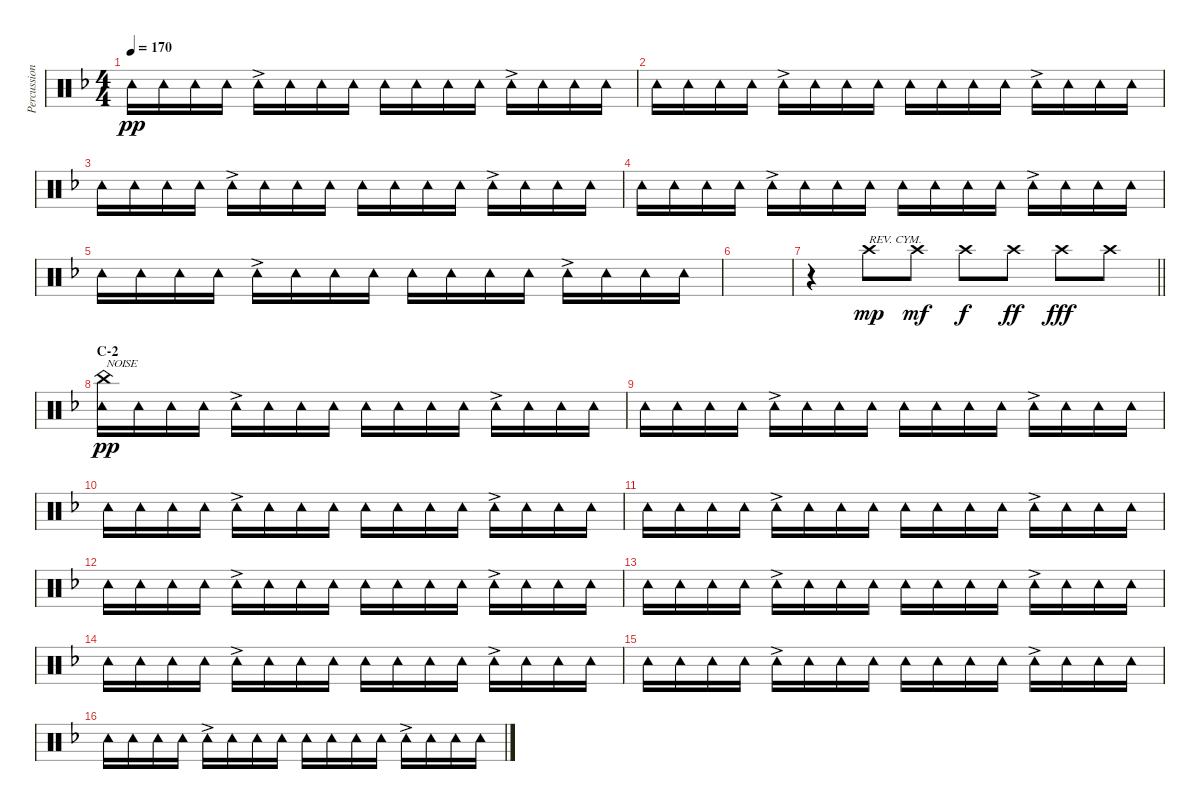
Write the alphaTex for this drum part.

\track ("Percussion (Tainaka Ritsu)" "Percussion") {instrument percussion}
\staff {score}
\articulation defaults
\ts (4 4)
\tempo 170
\clef neutral
\ks f "Tambourine (hit)".16{dy pp} "Tambourine (hit)".16 "Tambourine (hit)".16 "Tambourine (hit)".16 "Tambourine (hit)"{ac}.16 "Tambourine (hit)".16 "Tambourine (hit)".16 "Tambourine (hit)".16 "Tambourine (hit)".16 "Tambourine (hit)".16 "Tambourine (hit)".16 "Tambourine (hit)".16 "Tambourine (hit)"{ac}.16 "Tambourine (hit)".16 "Tambourine (hit)".16 "Tambourine (hit)".16
|
"Tambourine (hit)".16 "Tambourine (hit)".16 "Tambourine (hit)".16 "Tambourine (hit)".16 "Tambourine (hit)"{ac}.16 "Tambourine (hit)".16 "Tambourine (hit)".16 "Tambourine (hit)".16 "Tambourine (hit)".16 "Tambourine (hit)".16 "Tambourine (hit)".16 "Tambourine (hit)".16 "Tambourine (hit)"{ac}.16 "Tambourine (hit)".16 "Tambourine (hit)".16 "Tambourine (hit)".16 |
"Tambourine (hit)".16 "Tambourine (hit)".16 "Tambourine (hit)".16 "Tambourine (hit)".16 "Tambourine (hit)"{ac}.16 "Tambourine (hit)".16 "Tambourine (hit)".16 "Tambourine (hit)".16 "Tambourine (hit)".16 "Tambourine (hit)".16 "Tambourine (hit)".16 "Tambourine (hit)".16 "Tambourine (hit)"{ac}.16 "Tambourine (hit)".16 "Tambourine (hit)".16 "Tambourine (hit)".16 |
"Tambourine (hit)".16 "Tambourine (hit)".16 "Tambourine (hit)".16 "Tambourine (hit)".16 "Tambourine (hit)"{ac}.16 "Tambourine (hit)".16 "Tambourine (hit)".16 "Tambourine (hit)".16 "Tambourine (hit)".16 "Tambourine (hit)".16 "Tambourine (hit)".16 "Tambourine (hit)".16 "Tambourine (hit)"{ac}.16 "Tambourine (hit)".16 "Tambourine (hit)".16 "Tambourine (hit)".16 |
"Tambourine (hit)".16 "Tambourine (hit)".16 "Tambourine (hit)".16 "Tambourine (hit)".16 "Tambourine (hit)"{ac}.16 "Tambourine (hit)".16 "Tambourine (hit)".16 "Tambourine (hit)".16 "Tambourine (hit)".16 "Tambourine (hit)".16 "Tambourine (hit)".16 "Tambourine (hit)".16 "Tambourine (hit)"{ac}.16 "Tambourine (hit)".16 "Tambourine (hit)".16 "Tambourine (hit)".16 |
|
\barLineRight lightlight
r.4{volume 0} "Crash high (hit)".8{txt "REV. CYM." dy mp volume 13} "Crash high (hit)".8{dy mf} "Crash high (hit)".8{dy f} "Crash high (hit)".8{dy ff} "Crash high (hit)".8{dy fff} "Crash high (hit)".8 |
\section ("" "C-2")
("China (hit)" "Tambourine (hit)").16{txt "NOISE" dy pp} "Tambourine (hit)".16 "Tambourine (hit)".16 "Tambourine (hit)".16 "Tambourine (hit)"{ac}.16 "Tambourine (hit)".16 "Tambourine (hit)".16 "Tambourine (hit)".16 "Tambourine (hit)".16 "Tambourine (hit)".16 "Tambourine (hit)".16 "Tambourine (hit)".16 "Tambourine (hit)"{ac}.16 "Tambourine (hit)".16 "Tambourine (hit)".16 "Tambourine (hit)".16 |
"Tambourine (hit)".16 "Tambourine (hit)".16 "Tambourine (hit)".16 "Tambourine (hit)".16 "Tambourine (hit)"{ac}.16 "Tambourine (hit)".16 "Tambourine (hit)".16 "Tambourine (hit)".16 "Tambourine (hit)".16 "Tambourine (hit)".16 "Tambourine (hit)".16 "Tambourine (hit)".16 "Tambourine (hit)"{ac}.16 "Tambourine (hit)".16 "Tambourine (hit)".16 "Tambourine (hit)".16 |
"Tambourine (hit)".16 "Tambourine (hit)".16 "Tambourine (hit)".16 "Tambourine (hit)".16 "Tambourine (hit)"{ac}.16 "Tambourine (hit)".16 "Tambourine (hit)".16 "Tambourine (hit)".16 "Tambourine (hit)".16 "Tambourine (hit)".16 "Tambourine (hit)".16 "Tambourine (hit)".16 "Tambourine (hit)"{ac}.16 "Tambourine (hit)".16 "Tambourine (hit)".16 "Tambourine (hit)".16 |
"Tambourine (hit)".16 "Tambourine (hit)".16 "Tambourine (hit)".16 "Tambourine (hit)".16 "Tambourine (hit)"{ac}.16 "Tambourine (hit)".16 "Tambourine (hit)".16 "Tambourine (hit)".16 "Tambourine (hit)".16 "Tambourine (hit)".16 "Tambourine (hit)".16 "Tambourine (hit)".16 "Tambourine (hit)"{ac}.16 "Tambourine (hit)".16 "Tambourine (hit)".16 "Tambourine (hit)".16 |
"Tambourine (hit)".16 "Tambourine (hit)".16 "Tambourine (hit)".16 "Tambourine (hit)".16 "Tambourine (hit)"{ac}.16 "Tambourine (hit)".16 "Tambourine (hit)".16 "Tambourine (hit)".16 "Tambourine (hit)".16 "Tambourine (hit)".16 "Tambourine (hit)".16 "Tambourine (hit)".16 "Tambourine (hit)"{ac}.16 "Tambourine (hit)".16 "Tambourine (hit)".16 "Tambourine (hit)".16 |
"Tambourine (hit)".16 "Tambourine (hit)".16 "Tambourine (hit)".16 "Tambourine (hit)".16 "Tambourine (hit)"{ac}.16 "Tambourine (hit)".16 "Tambourine (hit)".16 "Tambourine (hit)".16 "Tambourine (hit)".16 "Tambourine (hit)".16 "Tambourine (hit)".16 "Tambourine (hit)".16 "Tambourine (hit)"{ac}.16 "Tambourine (hit)".16 "Tambourine (hit)".16 "Tambourine (hit)".16 |
"Tambourine (hit)".16 "Tambourine (hit)".16 "Tambourine (hit)".16 "Tambourine (hit)".16 "Tambourine (hit)"{ac}.16 "Tambourine (hit)".16 "Tambourine (hit)".16 "Tambourine (hit)".16 "Tambourine (hit)".16 "Tambourine (hit)".16 "Tambourine (hit)".16 "Tambourine (hit)".16 "Tambourine (hit)"{ac}.16 "Tambourine (hit)".16 "Tambourine (hit)".16 "Tambourine (hit)".16 |
"Tambourine (hit)".16 "Tambourine (hit)".16 "Tambourine (hit)".16 "Tambourine (hit)".16 "Tambourine (hit)"{ac}.16 "Tambourine (hit)".16 "Tambourine (hit)".16 "Tambourine (hit)".16 "Tambourine (hit)".16 "Tambourine (hit)".16 "Tambourine (hit)".16 "Tambourine (hit)".16 "Tambourine (hit)"{ac}.16 "Tambourine (hit)".16 "Tambourine (hit)".16 "Tambourine (hit)".16 |
"Tambourine (hit)".16 "Tambourine (hit)".16 "Tambourine (hit)".16 "Tambourine (hit)".16 "Tambourine (hit)"{ac}.16 "Tambourine (hit)".16 "Tambourine (hit)".16 "Tambourine (hit)".16 "Tambourine (hit)".16 "Tambourine (hit)".16 "Tambourine (hit)".16 "Tambourine (hit)".16 "Tambourine (hit)"{ac}.16 "Tambourine (hit)".16 "Tambourine (hit)".16 "Tambourine (hit)".16
